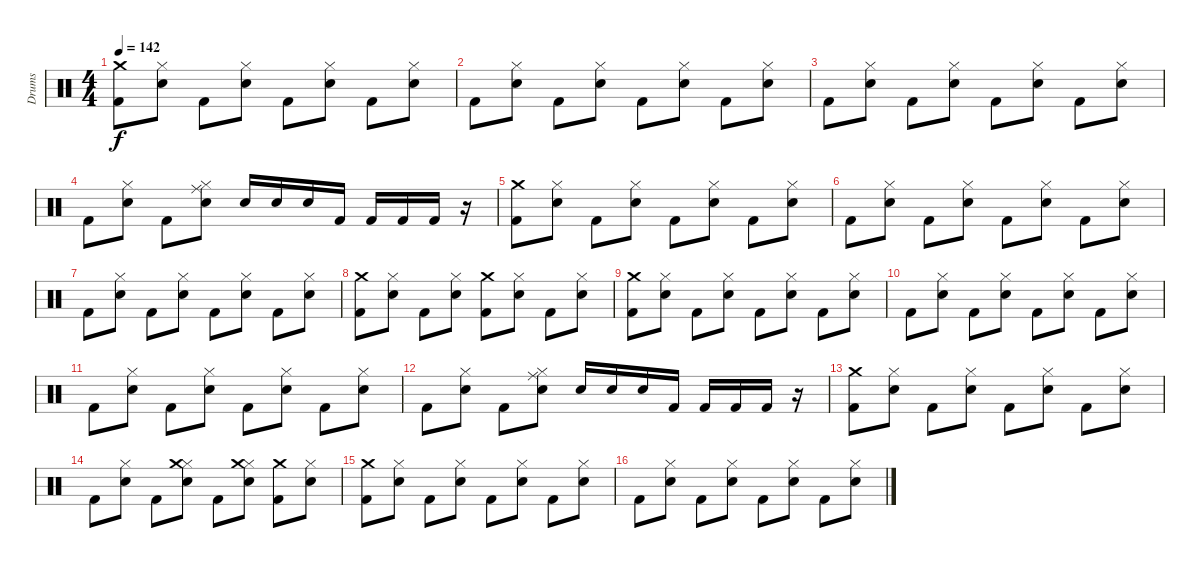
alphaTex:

\track ("Drums" "Drums") {instrument percussion}
\staff {score}
\articulation defaults
\ts (4 4)
\tempo 142
\clef neutral
\ks c
("Kick (hit) 2" "Crash medium (hit)").8{dy f} ("Snare (hit) 2" "Hi-Hat (closed)").8 "Kick (hit) 2".8 ("Snare (hit) 2" "Hi-Hat (closed)").8 "Kick (hit) 2".8 ("Snare (hit) 2" "Hi-Hat (closed)").8 "Kick (hit) 2".8 ("Snare (hit) 2" "Hi-Hat (closed)").8 |
"Kick (hit) 2".8 ("Snare (hit) 2" "Hi-Hat (closed)").8 "Kick (hit) 2".8 ("Snare (hit) 2" "Hi-Hat (closed)").8 "Kick (hit) 2".8 ("Snare (hit) 2" "Hi-Hat (closed)").8 "Kick (hit) 2".8 ("Snare (hit) 2" "Hi-Hat (closed)").8 |
"Kick (hit) 2".8 ("Snare (hit) 2" "Hi-Hat (closed)").8 "Kick (hit) 2".8 ("Snare (hit) 2" "Hi-Hat (closed)").8 "Kick (hit) 2".8 ("Snare (hit) 2" "Hi-Hat (closed)").8 "Kick (hit) 2".8 ("Snare (hit) 2" "Hi-Hat (closed)").8 |
"Kick (hit) 2".8 ("Snare (hit) 2" "Hi-Hat (closed)").8 "Kick (hit) 2".8 ("Snare (hit) 2" "Hi-Hat (closed)" "Ride (middle)").8 "Snare (hit) 2".16 "Snare (hit) 2".16 "Snare (hit) 2".16 "Kick (hit) 2".16 "Kick (hit) 2".16 "Kick (hit) 2".16 "Kick (hit) 2".16 r.16 |
("Kick (hit) 2" "Crash medium (hit)").8 ("Snare (hit) 2" "Hi-Hat (closed)").8 "Kick (hit) 2".8 ("Snare (hit) 2" "Hi-Hat (closed)").8 "Kick (hit) 2".8 ("Snare (hit) 2" "Hi-Hat (closed)").8 "Kick (hit) 2".8 ("Snare (hit) 2" "Hi-Hat (closed)").8 |
"Kick (hit) 2".8 ("Snare (hit) 2" "Hi-Hat (closed)").8 "Kick (hit) 2".8 ("Snare (hit) 2" "Hi-Hat (closed)").8 "Kick (hit) 2".8 ("Snare (hit) 2" "Hi-Hat (closed)").8 "Kick (hit) 2".8 ("Snare (hit) 2" "Hi-Hat (closed)").8 |
"Kick (hit) 2".8 ("Snare (hit) 2" "Hi-Hat (closed)").8 "Kick (hit) 2".8 ("Snare (hit) 2" "Hi-Hat (closed)").8 "Kick (hit) 2".8 ("Snare (hit) 2" "Hi-Hat (closed)").8 "Kick (hit) 2".8 ("Snare (hit) 2" "Hi-Hat (closed)").8 |
("Kick (hit) 2" "Crash medium (hit)").8 ("Snare (hit) 2" "Hi-Hat (closed)").8 "Kick (hit) 2".8 ("Snare (hit) 2" "Hi-Hat (closed)").8 ("Kick (hit) 2" "Crash medium (hit)").8 ("Snare (hit) 2" "Hi-Hat (closed)").8 "Kick (hit) 2".8 ("Snare (hit) 2" "Hi-Hat (closed)").8 |
("Kick (hit) 2" "Crash medium (hit)").8 ("Snare (hit) 2" "Hi-Hat (closed)").8 "Kick (hit) 2".8 ("Snare (hit) 2" "Hi-Hat (closed)").8 "Kick (hit) 2".8 ("Snare (hit) 2" "Hi-Hat (closed)").8 "Kick (hit) 2".8 ("Snare (hit) 2" "Hi-Hat (closed)").8 |
"Kick (hit) 2".8 ("Snare (hit) 2" "Hi-Hat (closed)").8 "Kick (hit) 2".8 ("Snare (hit) 2" "Hi-Hat (closed)").8 "Kick (hit) 2".8 ("Snare (hit) 2" "Hi-Hat (closed)").8 "Kick (hit) 2".8 ("Snare (hit) 2" "Hi-Hat (closed)").8 |
"Kick (hit) 2".8 ("Snare (hit) 2" "Hi-Hat (closed)").8 "Kick (hit) 2".8 ("Snare (hit) 2" "Hi-Hat (closed)").8 "Kick (hit) 2".8 ("Snare (hit) 2" "Hi-Hat (closed)").8 "Kick (hit) 2".8 ("Snare (hit) 2" "Hi-Hat (closed)").8 |
"Kick (hit) 2".8 ("Snare (hit) 2" "Hi-Hat (closed)").8 "Kick (hit) 2".8 ("Snare (hit) 2" "Hi-Hat (closed)" "Ride (middle)").8 "Snare (hit) 2".16 "Snare (hit) 2".16 "Snare (hit) 2".16 "Kick (hit) 2".16 "Kick (hit) 2".16 "Kick (hit) 2".16 "Kick (hit) 2".16 r.16 |
("Kick (hit) 2" "Crash medium (hit)").8 ("Snare (hit) 2" "Hi-Hat (closed)").8 "Kick (hit) 2".8 ("Snare (hit) 2" "Hi-Hat (closed)").8 "Kick (hit) 2".8 ("Snare (hit) 2" "Hi-Hat (closed)").8 "Kick (hit) 2".8 ("Snare (hit) 2" "Hi-Hat (closed)").8 |
"Kick (hit) 2".8 ("Snare (hit) 2" "Hi-Hat (closed)").8 "Kick (hit) 2".8 ("Snare (hit) 2" "Hi-Hat (closed)" "Crash medium (hit)").8 "Kick (hit) 2".8 ("Snare (hit) 2" "Hi-Hat (closed)" "Crash medium (hit)").8 ("Kick (hit) 2" "Crash medium (hit)").8 ("Snare (hit) 2" "Hi-Hat (closed)").8 |
("Kick (hit) 2" "Crash medium (hit)").8 ("Snare (hit) 2" "Hi-Hat (closed)").8 "Kick (hit) 2".8 ("Snare (hit) 2" "Hi-Hat (closed)").8 "Kick (hit) 2".8 ("Snare (hit) 2" "Hi-Hat (closed)").8 "Kick (hit) 2".8 ("Snare (hit) 2" "Hi-Hat (closed)").8 |
"Kick (hit) 2".8 ("Snare (hit) 2" "Hi-Hat (closed)").8 "Kick (hit) 2".8 ("Snare (hit) 2" "Hi-Hat (closed)").8 "Kick (hit) 2".8 ("Snare (hit) 2" "Hi-Hat (closed)").8 "Kick (hit) 2".8 ("Snare (hit) 2" "Hi-Hat (closed)").8
